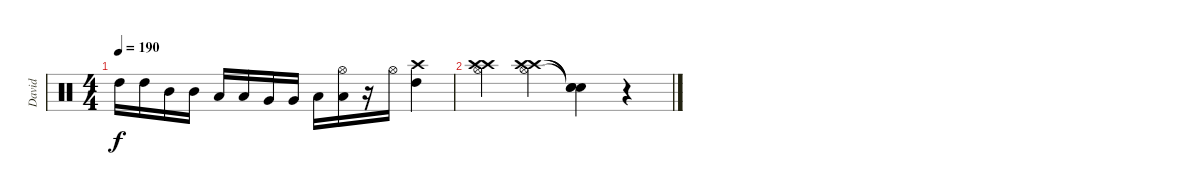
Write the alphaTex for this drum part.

\track ("David" "David") {instrument percussion}
\staff {score}
\articulation defaults
\ts (4 4)
\tempo 190
\clef neutral
\ks c "High Tom (hit)".16{dy f} "High Tom (hit)".16 "Mid Tom (hit)".16 "Mid Tom (hit)".16 "Low Tom (hit)".16 "Low Tom (hit)".16 "Very Low Tom (hit)".16 "Very Low Tom (hit)".16 "Low Floor Tom (hit)".16
("Hi-Hat (open)" "Low Floor Tom (hit)").16 r.16 "Hi-Hat (open)".16 ("Crash high (hit)" "High Tom (hit)").4 |
("Crash high (hit)" "Crash high (hit)" "Hi-Hat (open)").4 ("Crash high (hit)" "Crash high (hit)" "Hi-Hat (open)").4 ("Snare (hit)"{t} "Snare (hit)"{t} "Snare (hit)"{t}).4 r.4
